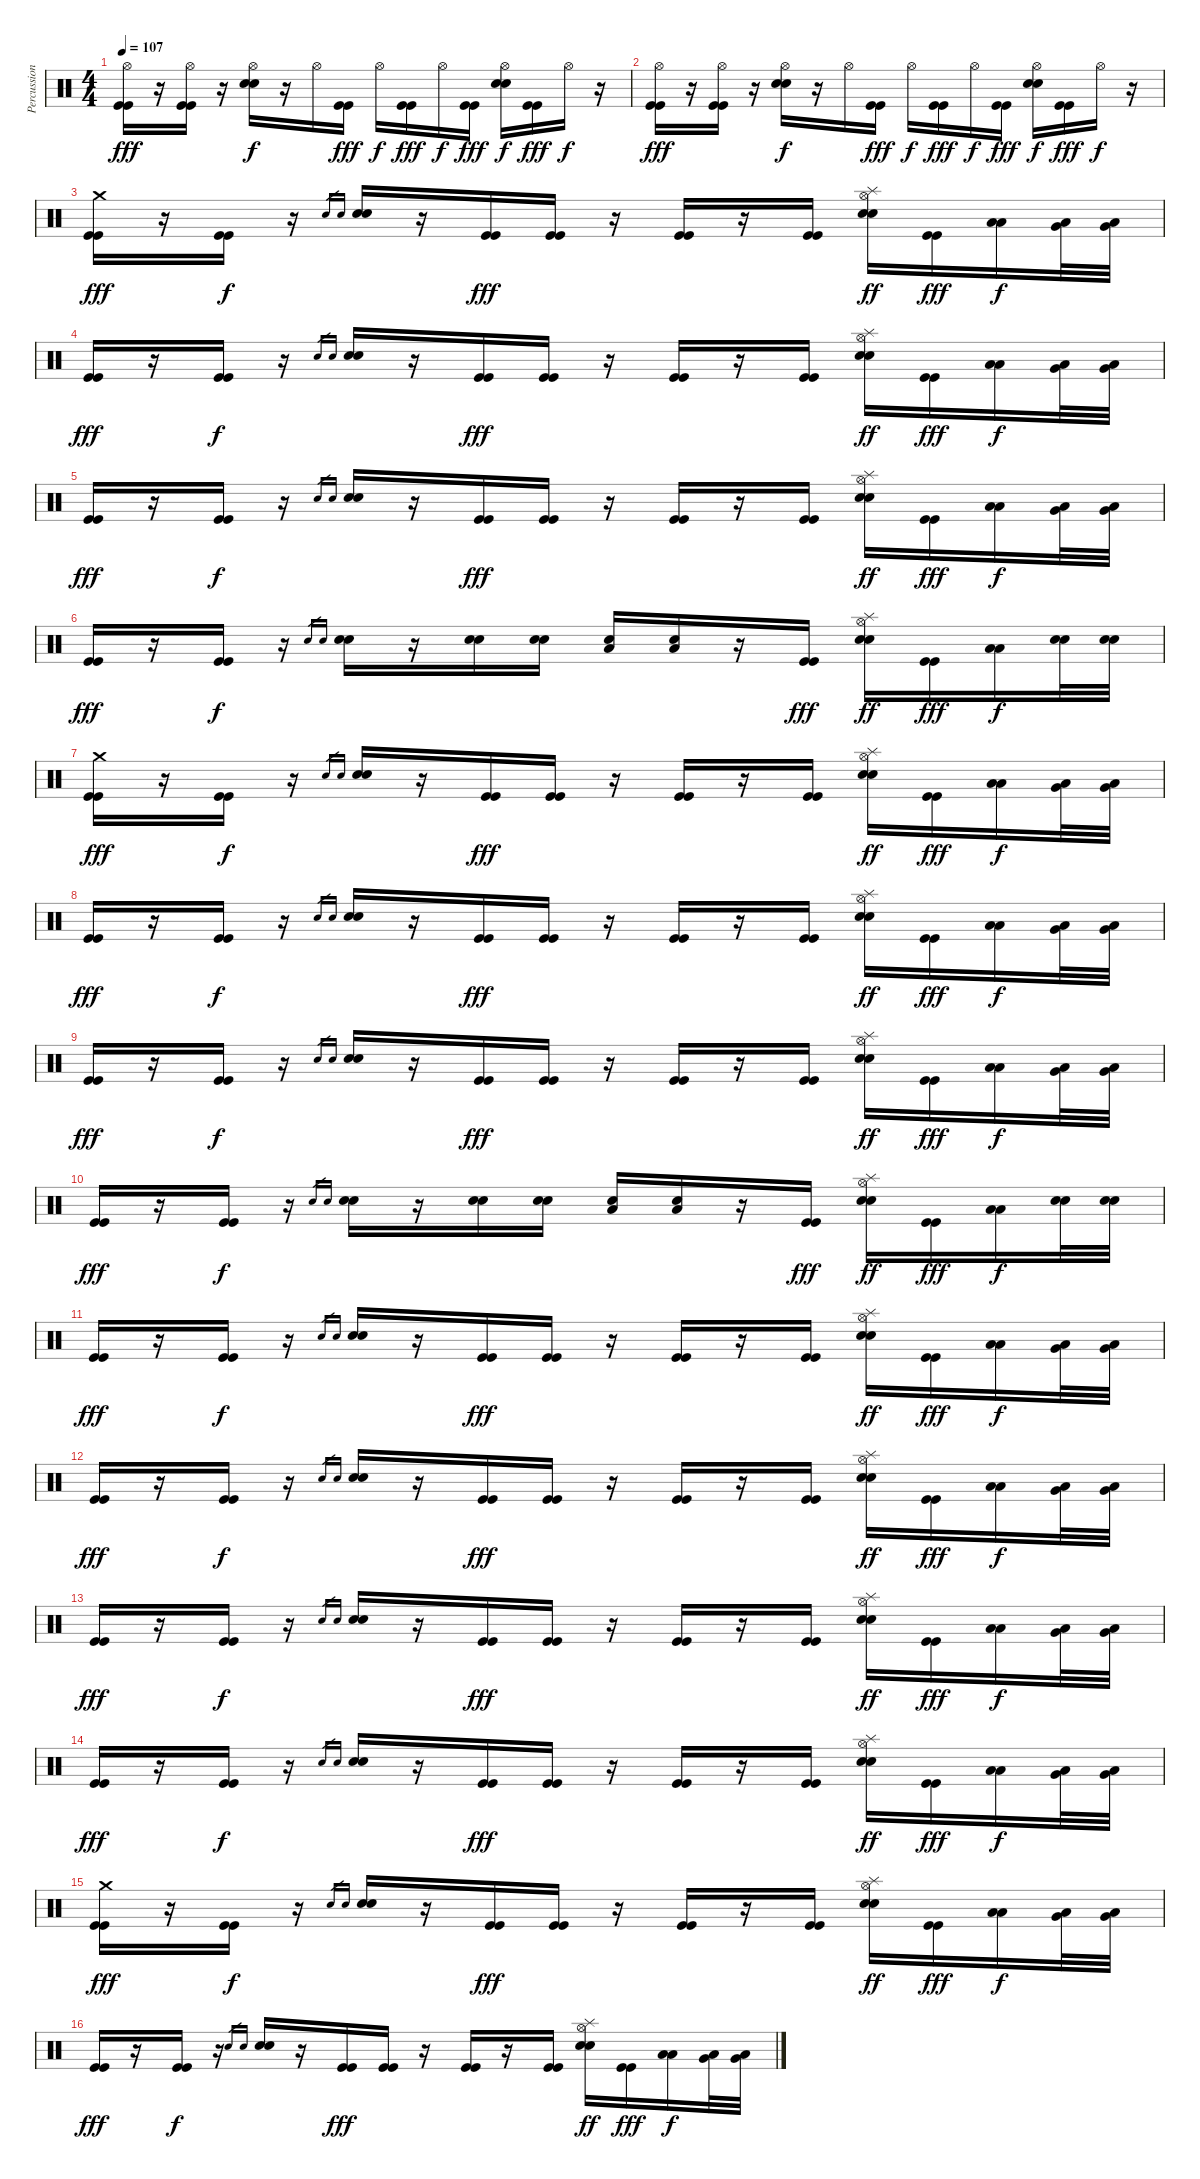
\track ("Percussions" "Percussion") {instrument percussion}
\staff {score}
\articulation defaults
\ts (4 4)
\tempo 107
\clef neutral
\ks c
("Hi-Hat (open)" "Kick (hit)" "Kick (hit)").16{dy fff} r.16 ("Hi-Hat (open)" "Kick (hit)" "Kick (hit)").16 r.16 ("Hi-Hat (open)" "Electric Snare (hit)" "Electric Snare (hit)").16{dy f} r.16 "Hi-Hat (open)".16 ("Kick (hit)" "Kick (hit)").16{dy fff} "Hi-Hat (open)".16{dy f} ("Kick (hit)" "Kick (hit)").16{dy fff} "Hi-Hat (open)".16{dy f} ("Kick (hit)" "Kick (hit)").16{dy fff} ("Hi-Hat (open)" "Electric Snare (hit)" "Electric Snare (hit)").16{dy f} ("Kick (hit)" "Kick (hit)").16{dy fff} "Hi-Hat (open)".16{dy f} r.16 |
("Hi-Hat (open)" "Kick (hit)" "Kick (hit)").16{dy fff} r.16 ("Hi-Hat (open)" "Kick (hit)" "Kick (hit)").16 r.16 ("Hi-Hat (open)" "Electric Snare (hit)" "Electric Snare (hit)").16{dy f} r.16 "Hi-Hat (open)".16 ("Kick (hit)" "Kick (hit)").16{dy fff} "Hi-Hat (open)".16{dy f} ("Kick (hit)" "Kick (hit)").16{dy fff} "Hi-Hat (open)".16{dy f} ("Kick (hit)" "Kick (hit)").16{dy fff} ("Hi-Hat (open)" "Electric Snare (hit)" "Electric Snare (hit)").16{dy f} ("Kick (hit)" "Kick (hit)").16{dy fff} "Hi-Hat (open)".16{dy f} r.16 |
("Crash medium (hit)" "Kick (hit)" "Kick (hit)").16{dy fff} r.16 ("Kick (hit)" "Kick (hit)").16{dy f} r.16 "Electric Snare (hit)".16{gr} "Electric Snare (hit)".16{gr} ("Electric Snare (hit)" "Electric Snare (hit)").16 r.16 ("Kick (hit)" "Kick (hit)").16{dy fff} ("Kick (hit)" "Kick (hit)").16 r.16 ("Kick (hit)" "Kick (hit)").16 r.16 ("Kick (hit)" "Kick (hit)").16 ("Splash (hit)" "Hi-Hat (open)" "Electric Snare (hit)" "Electric Snare (hit)").16{dy ff} ("Kick (hit)" "Kick (hit)").16{dy fff} ("Low Floor Tom (hit)" "Low Floor Tom (hit)").16{dy f} ("Low Floor Tom (hit)" "Very Low Tom (hit)").32 ("Very Low Tom (hit)" "Low Tom (hit)").32 |
("Kick (hit)" "Kick (hit)").16{dy fff} r.16 ("Kick (hit)" "Kick (hit)").16{dy f} r.16 "Electric Snare (hit)".16{gr} "Electric Snare (hit)".16{gr} ("Electric Snare (hit)" "Electric Snare (hit)").16 r.16 ("Kick (hit)" "Kick (hit)").16{dy fff} ("Kick (hit)" "Kick (hit)").16 r.16 ("Kick (hit)" "Kick (hit)").16 r.16 ("Kick (hit)" "Kick (hit)").16 ("Splash (hit)" "Hi-Hat (open)" "Electric Snare (hit)" "Electric Snare (hit)").16{dy ff} ("Kick (hit)" "Kick (hit)").16{dy fff} ("Low Floor Tom (hit)" "Low Floor Tom (hit)").16{dy f} ("Low Floor Tom (hit)" "Very Low Tom (hit)").32 ("Very Low Tom (hit)" "Low Tom (hit)").32 |
("Kick (hit)" "Kick (hit)").16{dy fff} r.16 ("Kick (hit)" "Kick (hit)").16{dy f} r.16 "Electric Snare (hit)".16{gr} "Electric Snare (hit)".16{gr} ("Electric Snare (hit)" "Electric Snare (hit)").16 r.16 ("Kick (hit)" "Kick (hit)").16{dy fff} ("Kick (hit)" "Kick (hit)").16 r.16 ("Kick (hit)" "Kick (hit)").16 r.16 ("Kick (hit)" "Kick (hit)").16 ("Splash (hit)" "Hi-Hat (open)" "Electric Snare (hit)" "Electric Snare (hit)").16{dy ff} ("Kick (hit)" "Kick (hit)").16{dy fff} ("Low Floor Tom (hit)" "Low Floor Tom (hit)").16{dy f} ("Low Floor Tom (hit)" "Very Low Tom (hit)").32 ("Very Low Tom (hit)" "Low Tom (hit)").32 |
("Kick (hit)" "Kick (hit)").16{dy fff} r.16 ("Kick (hit)" "Kick (hit)").16{dy f} r.16 "Electric Snare (hit)".16{gr} "Electric Snare (hit)".16{gr} ("Electric Snare (hit)" "Electric Snare (hit)").16 r.16 ("Electric Snare (hit)" "Electric Snare (hit)").16 ("Electric Snare (hit)" "Electric Snare (hit)").16 ("Low Floor Tom (hit)" "Electric Snare (hit)").16 ("Low Floor Tom (hit)" "Electric Snare (hit)").16 r.16 ("Kick (hit)" "Kick (hit)").16{dy fff} ("Splash (hit)" "Hi-Hat (open)" "Electric Snare (hit)" "Electric Snare (hit)").16{dy ff} ("Kick (hit)" "Kick (hit)").16{dy fff} ("Low Floor Tom (hit)" "Low Floor Tom (hit)").16{dy f} ("Electric Snare (hit)" "Electric Snare (hit)").32 ("Electric Snare (hit)" "Electric Snare (hit)").32 |
("Crash medium (hit)" "Kick (hit)" "Kick (hit)").16{dy fff} r.16 ("Kick (hit)" "Kick (hit)").16{dy f} r.16 "Electric Snare (hit)".16{gr} "Electric Snare (hit)".16{gr} ("Electric Snare (hit)" "Electric Snare (hit)").16 r.16 ("Kick (hit)" "Kick (hit)").16{dy fff} ("Kick (hit)" "Kick (hit)").16 r.16 ("Kick (hit)" "Kick (hit)").16 r.16 ("Kick (hit)" "Kick (hit)").16 ("Splash (hit)" "Hi-Hat (open)" "Electric Snare (hit)" "Electric Snare (hit)").16{dy ff} ("Kick (hit)" "Kick (hit)").16{dy fff} ("Low Floor Tom (hit)" "Low Floor Tom (hit)").16{dy f} ("Low Floor Tom (hit)" "Very Low Tom (hit)").32 ("Very Low Tom (hit)" "Low Tom (hit)").32 |
("Kick (hit)" "Kick (hit)").16{dy fff} r.16 ("Kick (hit)" "Kick (hit)").16{dy f} r.16 "Electric Snare (hit)".16{gr} "Electric Snare (hit)".16{gr} ("Electric Snare (hit)" "Electric Snare (hit)").16 r.16 ("Kick (hit)" "Kick (hit)").16{dy fff} ("Kick (hit)" "Kick (hit)").16 r.16 ("Kick (hit)" "Kick (hit)").16 r.16 ("Kick (hit)" "Kick (hit)").16 ("Splash (hit)" "Hi-Hat (open)" "Electric Snare (hit)" "Electric Snare (hit)").16{dy ff} ("Kick (hit)" "Kick (hit)").16{dy fff} ("Low Floor Tom (hit)" "Low Floor Tom (hit)").16{dy f} ("Low Floor Tom (hit)" "Very Low Tom (hit)").32 ("Very Low Tom (hit)" "Low Tom (hit)").32 |
("Kick (hit)" "Kick (hit)").16{dy fff} r.16 ("Kick (hit)" "Kick (hit)").16{dy f} r.16 "Electric Snare (hit)".16{gr} "Electric Snare (hit)".16{gr} ("Electric Snare (hit)" "Electric Snare (hit)").16 r.16 ("Kick (hit)" "Kick (hit)").16{dy fff} ("Kick (hit)" "Kick (hit)").16 r.16 ("Kick (hit)" "Kick (hit)").16 r.16 ("Kick (hit)" "Kick (hit)").16 ("Splash (hit)" "Hi-Hat (open)" "Electric Snare (hit)" "Electric Snare (hit)").16{dy ff} ("Kick (hit)" "Kick (hit)").16{dy fff} ("Low Floor Tom (hit)" "Low Floor Tom (hit)").16{dy f} ("Low Floor Tom (hit)" "Very Low Tom (hit)").32 ("Very Low Tom (hit)" "Low Tom (hit)").32 |
("Kick (hit)" "Kick (hit)").16{dy fff} r.16 ("Kick (hit)" "Kick (hit)").16{dy f} r.16 "Electric Snare (hit)".16{gr} "Electric Snare (hit)".16{gr} ("Electric Snare (hit)" "Electric Snare (hit)").16 r.16 ("Electric Snare (hit)" "Electric Snare (hit)").16 ("Electric Snare (hit)" "Electric Snare (hit)").16 ("Low Floor Tom (hit)" "Electric Snare (hit)").16 ("Low Floor Tom (hit)" "Electric Snare (hit)").16 r.16 ("Kick (hit)" "Kick (hit)").16{dy fff} ("Splash (hit)" "Hi-Hat (open)" "Electric Snare (hit)" "Electric Snare (hit)").16{dy ff} ("Kick (hit)" "Kick (hit)").16{dy fff} ("Low Floor Tom (hit)" "Low Floor Tom (hit)").16{dy f} ("Electric Snare (hit)" "Electric Snare (hit)").32 ("Electric Snare (hit)" "Electric Snare (hit)").32 |
("Kick (hit)" "Kick (hit)").16{dy fff} r.16 ("Kick (hit)" "Kick (hit)").16{dy f} r.16 "Electric Snare (hit)".16{gr} "Electric Snare (hit)".16{gr} ("Electric Snare (hit)" "Electric Snare (hit)").16 r.16 ("Kick (hit)" "Kick (hit)").16{dy fff} ("Kick (hit)" "Kick (hit)").16 r.16 ("Kick (hit)" "Kick (hit)").16 r.16 ("Kick (hit)" "Kick (hit)").16 ("Splash (hit)" "Hi-Hat (open)" "Electric Snare (hit)" "Electric Snare (hit)").16{dy ff} ("Kick (hit)" "Kick (hit)").16{dy fff} ("Low Floor Tom (hit)" "Low Floor Tom (hit)").16{dy f} ("Low Floor Tom (hit)" "Very Low Tom (hit)").32 ("Very Low Tom (hit)" "Low Tom (hit)").32 |
("Kick (hit)" "Kick (hit)").16{dy fff} r.16 ("Kick (hit)" "Kick (hit)").16{dy f} r.16 "Electric Snare (hit)".16{gr} "Electric Snare (hit)".16{gr} ("Electric Snare (hit)" "Electric Snare (hit)").16 r.16 ("Kick (hit)" "Kick (hit)").16{dy fff} ("Kick (hit)" "Kick (hit)").16 r.16 ("Kick (hit)" "Kick (hit)").16 r.16 ("Kick (hit)" "Kick (hit)").16 ("Splash (hit)" "Hi-Hat (open)" "Electric Snare (hit)" "Electric Snare (hit)").16{dy ff} ("Kick (hit)" "Kick (hit)").16{dy fff} ("Low Floor Tom (hit)" "Low Floor Tom (hit)").16{dy f} ("Low Floor Tom (hit)" "Very Low Tom (hit)").32 ("Very Low Tom (hit)" "Low Tom (hit)").32 |
("Kick (hit)" "Kick (hit)").16{dy fff} r.16 ("Kick (hit)" "Kick (hit)").16{dy f} r.16 "Electric Snare (hit)".16{gr} "Electric Snare (hit)".16{gr} ("Electric Snare (hit)" "Electric Snare (hit)").16 r.16 ("Kick (hit)" "Kick (hit)").16{dy fff} ("Kick (hit)" "Kick (hit)").16 r.16 ("Kick (hit)" "Kick (hit)").16 r.16 ("Kick (hit)" "Kick (hit)").16 ("Splash (hit)" "Hi-Hat (open)" "Electric Snare (hit)" "Electric Snare (hit)").16{dy ff} ("Kick (hit)" "Kick (hit)").16{dy fff} ("Low Floor Tom (hit)" "Low Floor Tom (hit)").16{dy f} ("Low Floor Tom (hit)" "Very Low Tom (hit)").32 ("Very Low Tom (hit)" "Low Tom (hit)").32 |
("Kick (hit)" "Kick (hit)").16{dy fff} r.16 ("Kick (hit)" "Kick (hit)").16{dy f} r.16 "Electric Snare (hit)".16{gr} "Electric Snare (hit)".16{gr} ("Electric Snare (hit)" "Electric Snare (hit)").16 r.16 ("Kick (hit)" "Kick (hit)").16{dy fff} ("Kick (hit)" "Kick (hit)").16 r.16 ("Kick (hit)" "Kick (hit)").16 r.16 ("Kick (hit)" "Kick (hit)").16 ("Splash (hit)" "Hi-Hat (open)" "Electric Snare (hit)" "Electric Snare (hit)").16{dy ff} ("Kick (hit)" "Kick (hit)").16{dy fff} ("Low Floor Tom (hit)" "Low Floor Tom (hit)").16{dy f} ("Low Floor Tom (hit)" "Very Low Tom (hit)").32 ("Very Low Tom (hit)" "Low Tom (hit)").32 |
("Crash medium (hit)" "Kick (hit)" "Kick (hit)").16{dy fff} r.16 ("Kick (hit)" "Kick (hit)").16{dy f} r.16 "Electric Snare (hit)".16{gr} "Electric Snare (hit)".16{gr} ("Electric Snare (hit)" "Electric Snare (hit)").16 r.16 ("Kick (hit)" "Kick (hit)").16{dy fff} ("Kick (hit)" "Kick (hit)").16 r.16 ("Kick (hit)" "Kick (hit)").16 r.16 ("Kick (hit)" "Kick (hit)").16 ("Splash (hit)" "Hi-Hat (open)" "Electric Snare (hit)" "Electric Snare (hit)").16{dy ff} ("Kick (hit)" "Kick (hit)").16{dy fff} ("Low Floor Tom (hit)" "Low Floor Tom (hit)").16{dy f} ("Low Floor Tom (hit)" "Very Low Tom (hit)").32 ("Very Low Tom (hit)" "Low Tom (hit)").32 |
("Kick (hit)" "Kick (hit)").16{dy fff} r.16 ("Kick (hit)" "Kick (hit)").16{dy f} r.16 "Electric Snare (hit)".16{gr} "Electric Snare (hit)".16{gr} ("Electric Snare (hit)" "Electric Snare (hit)").16 r.16 ("Kick (hit)" "Kick (hit)").16{dy fff} ("Kick (hit)" "Kick (hit)").16 r.16 ("Kick (hit)" "Kick (hit)").16 r.16 ("Kick (hit)" "Kick (hit)").16 ("Splash (hit)" "Hi-Hat (open)" "Electric Snare (hit)" "Electric Snare (hit)").16{dy ff} ("Kick (hit)" "Kick (hit)").16{dy fff} ("Low Floor Tom (hit)" "Low Floor Tom (hit)").16{dy f} ("Low Floor Tom (hit)" "Very Low Tom (hit)").32 ("Very Low Tom (hit)" "Low Tom (hit)").32
